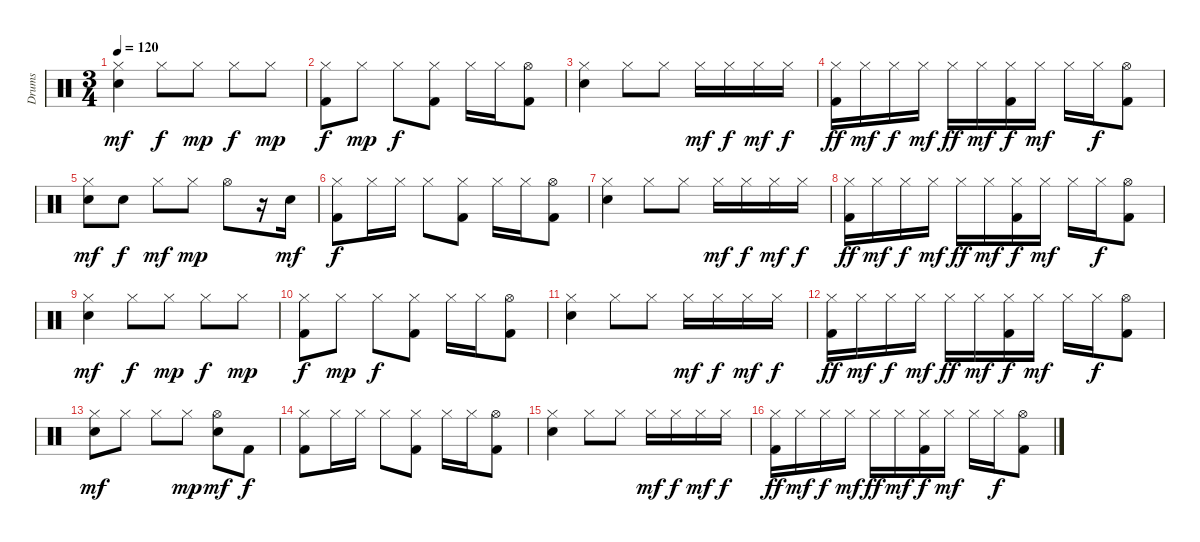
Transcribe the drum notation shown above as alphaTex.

\track ("Drums" "Drums") {instrument percussion}
\staff {score}
\articulation defaults
\ts (3 4)
\tempo 120
\clef neutral
\ks c
("Hi-Hat (closed)" "Electric Snare (hit)").4{dy mf} "Hi-Hat (closed)".8{dy f} "Hi-Hat (closed)".8{dy mp} "Hi-Hat (closed)".8{dy f} "Hi-Hat (closed)".8{dy mp} |
("Hi-Hat (closed)" "Kick (hit) 2").8{dy f} "Hi-Hat (closed)".8{dy mp} "Hi-Hat (closed)".8{dy f} ("Hi-Hat (closed)" "Kick (hit) 2").8 "Hi-Hat (closed)".16 "Hi-Hat (closed)".16 ("Hi-Hat (open)" "Kick (hit) 2").8 |
("Hi-Hat (closed)" "Electric Snare (hit)").4 "Hi-Hat (closed)".8 "Hi-Hat (closed)".8 "Hi-Hat (closed)".16{dy mf} "Hi-Hat (closed)".16{dy f} "Hi-Hat (closed)".16{dy mf} "Hi-Hat (closed)".16{dy f} |
("Hi-Hat (closed)" "Kick (hit) 2").16{dy ff} "Hi-Hat (closed)".16{dy mf} "Hi-Hat (closed)".16{dy f} "Hi-Hat (closed)".16{dy mf} "Hi-Hat (closed)".16{dy ff} "Hi-Hat (closed)".16{dy mf} ("Hi-Hat (closed)" "Kick (hit) 2").16{dy f} "Hi-Hat (closed)".16{dy mf} "Hi-Hat (closed)".16 "Hi-Hat (closed)".16{dy f} ("Hi-Hat (open)" "Kick (hit) 2").8 |
("Hi-Hat (closed)" "Electric Snare (hit)").8{dy mf} "Electric Snare (hit)".8{dy f} "Hi-Hat (closed)".8{dy mf} "Hi-Hat (closed)".8{dy mp} "Hi-Hat (open)".8 r.16 "Electric Snare (hit)".16{dy mf} |
("Hi-Hat (closed)" "Kick (hit) 2").8{dy f} "Hi-Hat (closed)".16 "Hi-Hat (closed)".16 "Hi-Hat (closed)".8 ("Hi-Hat (closed)" "Kick (hit) 2").8 "Hi-Hat (closed)".16 "Hi-Hat (closed)".16 ("Hi-Hat (open)" "Kick (hit) 2").8 |
("Hi-Hat (closed)" "Electric Snare (hit)").4 "Hi-Hat (closed)".8 "Hi-Hat (closed)".8 "Hi-Hat (closed)".16{dy mf} "Hi-Hat (closed)".16{dy f} "Hi-Hat (closed)".16{dy mf} "Hi-Hat (closed)".16{dy f} |
("Hi-Hat (closed)" "Kick (hit) 2").16{dy ff} "Hi-Hat (closed)".16{dy mf} "Hi-Hat (closed)".16{dy f} "Hi-Hat (closed)".16{dy mf} "Hi-Hat (closed)".16{dy ff} "Hi-Hat (closed)".16{dy mf} ("Hi-Hat (closed)" "Kick (hit) 2").16{dy f} "Hi-Hat (closed)".16{dy mf} "Hi-Hat (closed)".16 "Hi-Hat (closed)".16{dy f} ("Hi-Hat (open)" "Kick (hit) 2").8 |
("Hi-Hat (closed)" "Electric Snare (hit)").4{dy mf} "Hi-Hat (closed)".8{dy f} "Hi-Hat (closed)".8{dy mp} "Hi-Hat (closed)".8{dy f} "Hi-Hat (closed)".8{dy mp} |
("Hi-Hat (closed)" "Kick (hit) 2").8{dy f} "Hi-Hat (closed)".8{dy mp} "Hi-Hat (closed)".8{dy f} ("Hi-Hat (closed)" "Kick (hit) 2").8 "Hi-Hat (closed)".16 "Hi-Hat (closed)".16 ("Hi-Hat (open)" "Kick (hit) 2").8 |
("Hi-Hat (closed)" "Electric Snare (hit)").4 "Hi-Hat (closed)".8 "Hi-Hat (closed)".8 "Hi-Hat (closed)".16{dy mf} "Hi-Hat (closed)".16{dy f} "Hi-Hat (closed)".16{dy mf} "Hi-Hat (closed)".16{dy f} |
("Hi-Hat (closed)" "Kick (hit) 2").16{dy ff} "Hi-Hat (closed)".16{dy mf} "Hi-Hat (closed)".16{dy f} "Hi-Hat (closed)".16{dy mf} "Hi-Hat (closed)".16{dy ff} "Hi-Hat (closed)".16{dy mf} ("Hi-Hat (closed)" "Kick (hit) 2").16{dy f} "Hi-Hat (closed)".16{dy mf} "Hi-Hat (closed)".16 "Hi-Hat (closed)".16{dy f} ("Hi-Hat (open)" "Kick (hit) 2").8 |
("Hi-Hat (closed)" "Electric Snare (hit)").8{dy mf} "Hi-Hat (closed)".8 "Hi-Hat (closed)".8 "Hi-Hat (closed)".8{dy mp} ("Hi-Hat (open)" "Electric Snare (hit)").8{dy mf} "Kick (hit) 2".8{dy f} |
("Hi-Hat (closed)" "Kick (hit) 2").8 "Hi-Hat (closed)".16 "Hi-Hat (closed)".16 "Hi-Hat (closed)".8 ("Hi-Hat (closed)" "Kick (hit) 2").8 "Hi-Hat (closed)".16 "Hi-Hat (closed)".16 ("Hi-Hat (open)" "Kick (hit) 2").8 |
("Hi-Hat (closed)" "Electric Snare (hit)").4 "Hi-Hat (closed)".8 "Hi-Hat (closed)".8 "Hi-Hat (closed)".16{dy mf} "Hi-Hat (closed)".16{dy f} "Hi-Hat (closed)".16{dy mf} "Hi-Hat (closed)".16{dy f} |
("Hi-Hat (closed)" "Kick (hit) 2").16{dy ff} "Hi-Hat (closed)".16{dy mf} "Hi-Hat (closed)".16{dy f} "Hi-Hat (closed)".16{dy mf} "Hi-Hat (closed)".16{dy ff} "Hi-Hat (closed)".16{dy mf} ("Hi-Hat (closed)" "Kick (hit) 2").16{dy f} "Hi-Hat (closed)".16{dy mf} "Hi-Hat (closed)".16 "Hi-Hat (closed)".16{dy f} ("Hi-Hat (open)" "Kick (hit) 2").8
